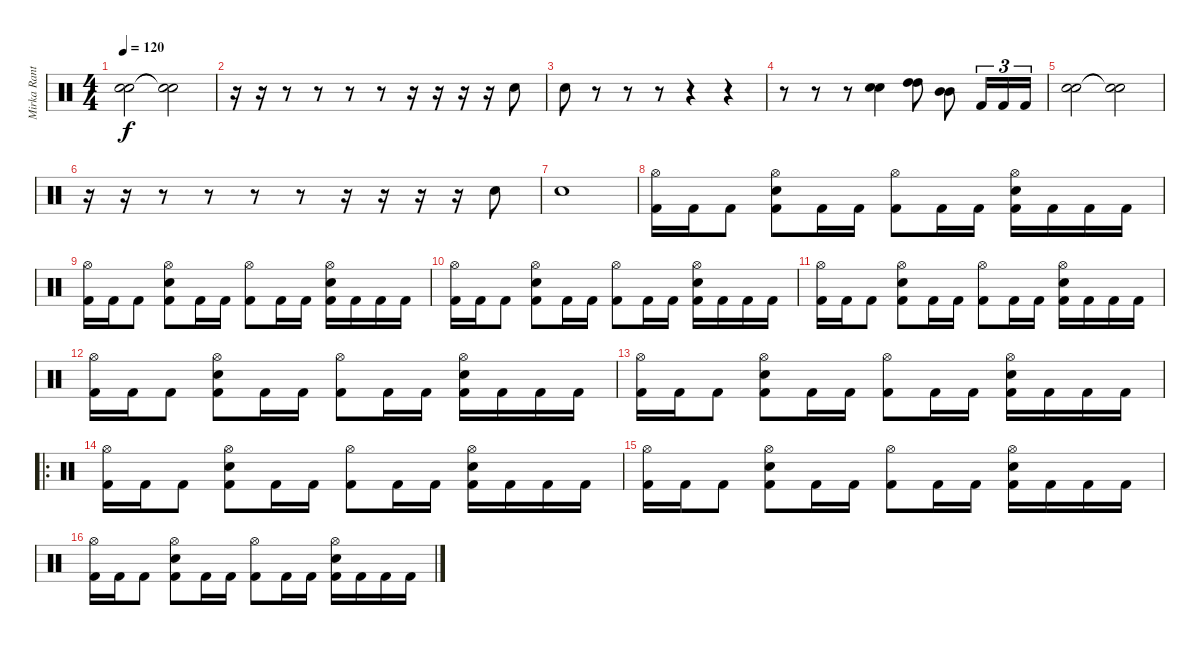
\track ("Mirka Rantanen" "Mirka Rant") {instrument percussion}
\staff {score}
\articulation defaults
\ts (4 4)
\tempo 120
\clef neutral
\ks c
("Snare (hit) 2" "Snare (hit) 2").2{dy f} ("Snare (hit)"{t} "Snare (hit)"{t}).2 |
r.16 r.16 r.8 r.8 r.8 r.8 r.16 r.16 r.16 r.16 "Snare (hit) 2".8 |
"Snare (hit) 2".8 r.8 r.8 r.8 r.4 r.4 |
r.8 r.8 r.8 ("Snare (hit) 2" "Snare (hit) 2").4 ("High Tom (hit)" "High Tom (hit)").8 ("Mid Tom (hit)" "Mid Tom (hit)").8 "Kick (hit) 2".16{tu (3 2)} "Kick (hit) 2".16{tu (3 2)} "Kick (hit) 2".16{tu (3 2)} |
("Snare (hit) 2" "Snare (hit) 2").2 ("Snare (hit)"{t} "Snare (hit)"{t}).2 |
r.16 r.16 r.8 r.8 r.8 r.8 r.16 r.16 r.16 r.16 "Snare (hit) 2".8 |
"Snare (hit) 2".1 |
("Hi-Hat (open)" "Kick (hit) 2").16 "Kick (hit) 2".16 "Kick (hit) 2".8 ("Hi-Hat (open)" "Snare (hit) 2" "Kick (hit) 2").8 "Kick (hit) 2".16 "Kick (hit) 2".16 ("Hi-Hat (open)" "Kick (hit) 2").8 "Kick (hit) 2".16 "Kick (hit) 2".16 ("Snare (hit) 2" "Hi-Hat (open)" "Kick (hit) 2").16 "Kick (hit) 2".16 "Kick (hit) 2".16 "Kick (hit) 2".16 |
("Hi-Hat (open)" "Kick (hit) 2").16 "Kick (hit) 2".16 "Kick (hit) 2".8 ("Hi-Hat (open)" "Snare (hit) 2" "Kick (hit) 2").8 "Kick (hit) 2".16 "Kick (hit) 2".16 ("Hi-Hat (open)" "Kick (hit) 2").8 "Kick (hit) 2".16 "Kick (hit) 2".16 ("Snare (hit) 2" "Hi-Hat (open)" "Kick (hit) 2").16 "Kick (hit) 2".16 "Kick (hit) 2".16 "Kick (hit) 2".16 |
("Hi-Hat (open)" "Kick (hit) 2").16 "Kick (hit) 2".16 "Kick (hit) 2".8 ("Hi-Hat (open)" "Snare (hit) 2" "Kick (hit) 2").8 "Kick (hit) 2".16 "Kick (hit) 2".16 ("Hi-Hat (open)" "Kick (hit) 2").8 "Kick (hit) 2".16 "Kick (hit) 2".16 ("Snare (hit) 2" "Hi-Hat (open)" "Kick (hit) 2").16 "Kick (hit) 2".16 "Kick (hit) 2".16 "Kick (hit) 2".16 |
("Hi-Hat (open)" "Kick (hit) 2").16 "Kick (hit) 2".16 "Kick (hit) 2".8 ("Hi-Hat (open)" "Snare (hit) 2" "Kick (hit) 2").8 "Kick (hit) 2".16 "Kick (hit) 2".16 ("Hi-Hat (open)" "Kick (hit) 2").8 "Kick (hit) 2".16 "Kick (hit) 2".16 ("Snare (hit) 2" "Hi-Hat (open)" "Kick (hit) 2").16 "Kick (hit) 2".16 "Kick (hit) 2".16 "Kick (hit) 2".16 |
("Hi-Hat (open)" "Kick (hit) 2").16 "Kick (hit) 2".16 "Kick (hit) 2".8 ("Hi-Hat (open)" "Snare (hit) 2" "Kick (hit) 2").8 "Kick (hit) 2".16 "Kick (hit) 2".16 ("Hi-Hat (open)" "Kick (hit) 2").8 "Kick (hit) 2".16 "Kick (hit) 2".16 ("Snare (hit) 2" "Hi-Hat (open)" "Kick (hit) 2").16 "Kick (hit) 2".16 "Kick (hit) 2".16 "Kick (hit) 2".16 |
("Hi-Hat (open)" "Kick (hit) 2").16 "Kick (hit) 2".16 "Kick (hit) 2".8 ("Hi-Hat (open)" "Snare (hit) 2" "Kick (hit) 2").8 "Kick (hit) 2".16 "Kick (hit) 2".16 ("Hi-Hat (open)" "Kick (hit) 2").8 "Kick (hit) 2".16 "Kick (hit) 2".16 ("Snare (hit) 2" "Hi-Hat (open)" "Kick (hit) 2").16 "Kick (hit) 2".16 "Kick (hit) 2".16 "Kick (hit) 2".16 |
\ro
("Hi-Hat (open)" "Kick (hit) 2").16 "Kick (hit) 2".16 "Kick (hit) 2".8 ("Hi-Hat (open)" "Snare (hit) 2" "Kick (hit) 2").8 "Kick (hit) 2".16 "Kick (hit) 2".16 ("Hi-Hat (open)" "Kick (hit) 2").8 "Kick (hit) 2".16 "Kick (hit) 2".16 ("Snare (hit) 2" "Hi-Hat (open)" "Kick (hit) 2").16 "Kick (hit) 2".16 "Kick (hit) 2".16 "Kick (hit) 2".16 |
("Hi-Hat (open)" "Kick (hit) 2").16 "Kick (hit) 2".16 "Kick (hit) 2".8 ("Hi-Hat (open)" "Snare (hit) 2" "Kick (hit) 2").8 "Kick (hit) 2".16 "Kick (hit) 2".16 ("Hi-Hat (open)" "Kick (hit) 2").8 "Kick (hit) 2".16 "Kick (hit) 2".16 ("Snare (hit) 2" "Hi-Hat (open)" "Kick (hit) 2").16 "Kick (hit) 2".16 "Kick (hit) 2".16 "Kick (hit) 2".16 |
("Hi-Hat (open)" "Kick (hit) 2").16 "Kick (hit) 2".16 "Kick (hit) 2".8 ("Hi-Hat (open)" "Snare (hit) 2" "Kick (hit) 2").8 "Kick (hit) 2".16 "Kick (hit) 2".16 ("Hi-Hat (open)" "Kick (hit) 2").8 "Kick (hit) 2".16 "Kick (hit) 2".16 ("Snare (hit) 2" "Hi-Hat (open)" "Kick (hit) 2").16 "Kick (hit) 2".16 "Kick (hit) 2".16 "Kick (hit) 2".16
